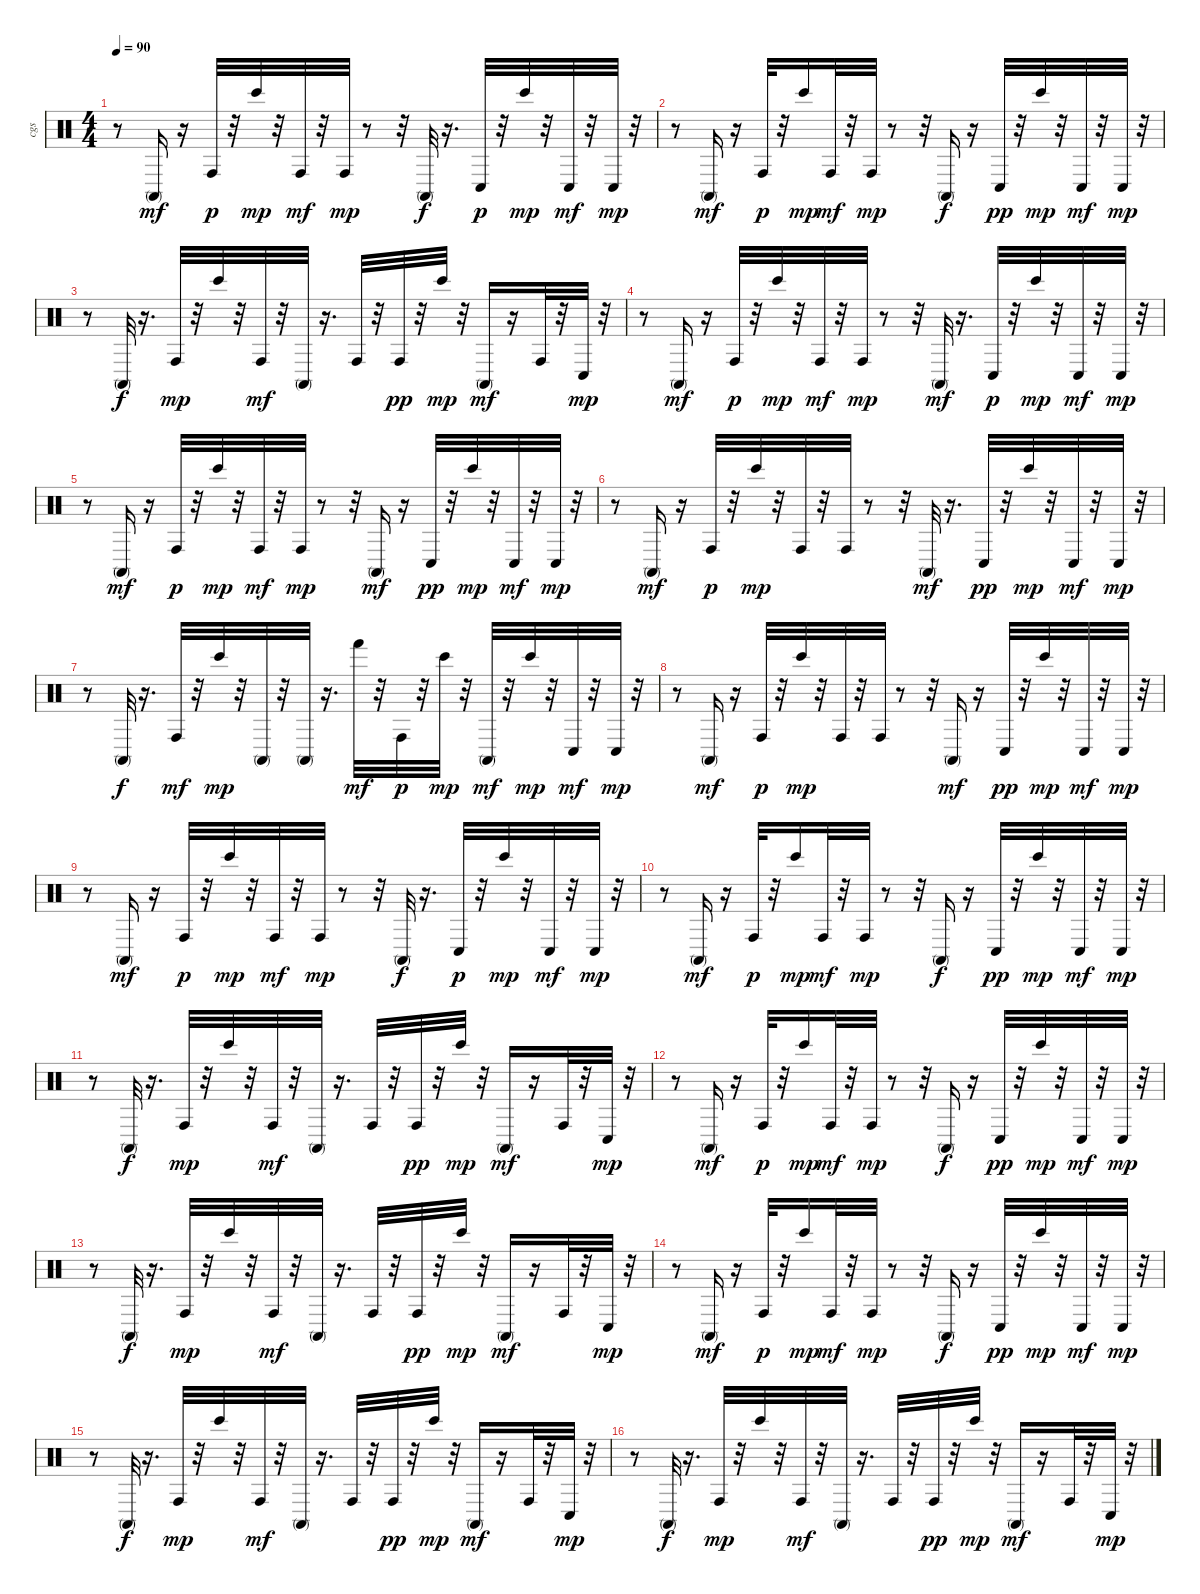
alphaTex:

\track ("cgs" "cgs") {instrument percussion}
\staff {score}
\articulation defaults
\ts (4 4)
\tempo 90
\clef neutral
\ks c
r.8{dy mp} "Conga high (mute)".16{dy mf} r.16 "Conga high (hit)".32{dy p} r.32 "Bongo High (hit)".32{dy mp} r.32 "Conga high (hit)".32{dy mf} r.32 "Conga high (hit)".32{dy mp} r.8 r.32 "Conga high (mute)".32{dy f} r.16{d} "Conga low (hit)".32{dy p} r.32 "Bongo High (hit)".32{dy mp} r.32 "Conga low (hit)".32{dy mf} r.32 "Conga low (hit)".32{dy mp} r.32 |
r.8 "Conga high (mute)".16{dy mf} r.16 "Conga high (hit)".32{dy p} r.32 "Bongo High (hit)".16{dy mp} "Conga high (hit)".32{dy mf} r.32 "Conga high (hit)".32{dy mp} r.8 r.32 "Conga high (mute)".16{dy f} r.16 "Conga low (hit)".32{dy pp} r.32 "Bongo High (hit)".32{dy mp} r.32 "Conga low (hit)".32{dy mf} r.32 "Conga low (hit)".32{dy mp} r.32 |
r.8 "Conga high (mute)".32{dy f} r.16{d} "Conga high (hit)".32{dy mp} r.32 "Bongo High (hit)".32 r.32 "Conga high (hit)".32{dy mf} r.32 "Conga high (mute)".32 r.16{d} "Conga high (hit)".32 r.32 "Conga high (hit)".32{dy pp} r.32 "Bongo High (hit)".32{dy mp} r.32 "Conga high (mute)".16{dy mf} r.16 "Conga high (hit)".32 r.32 "Conga low (hit)".32{dy mp} r.32 |
r.8 "Conga high (mute)".16{dy mf} r.16 "Conga high (hit)".32{dy p} r.32 "Bongo High (hit)".32{dy mp} r.32 "Conga high (hit)".32{dy mf} r.32 "Conga high (hit)".32{dy mp} r.8 r.32 "Conga high (mute)".32{dy mf} r.16{d} "Conga low (hit)".32{dy p} r.32 "Bongo High (hit)".32{dy mp} r.32 "Conga low (hit)".32{dy mf} r.32 "Conga low (hit)".32{dy mp} r.32 |
r.8 "Conga high (mute)".16{dy mf} r.16 "Conga high (hit)".32{dy p} r.32 "Bongo High (hit)".32{dy mp} r.32 "Conga high (hit)".32{dy mf} r.32 "Conga high (hit)".32{dy mp} r.8 r.32 "Conga high (mute)".16{dy mf} r.16 "Conga low (hit)".32{dy pp} r.32 "Bongo High (hit)".32{dy mp} r.32 "Conga low (hit)".32{dy mf} r.32 "Conga low (hit)".32{dy mp} r.32 |
r.8 "Conga high (mute)".16{dy mf} r.16 "Conga high (hit)".32{dy p} r.32 "Bongo High (hit)".32{dy mp} r.32 "Conga high (hit)".32 r.32 "Conga high (hit)".32 r.8 r.32 "Conga high (mute)".32{dy mf} r.16{d} "Conga low (hit)".32{dy pp} r.32 "Bongo High (hit)".32{dy mp} r.32 "Conga low (hit)".32{dy mf} r.32 "Conga low (hit)".32{dy mp} r.32 |
r.8 "Conga high (mute)".32{dy f} r.16{d} "Conga high (hit)".32{dy mf} r.32 "Bongo High (hit)".32{dy mp} r.32 "Conga high (mute)".32 r.32 "Conga high (mute)".32 r.16{d} "Hand (hit)".32{dy mf} r.32 "Conga high (hit)".32{dy p} r.32 "Bongo High (hit)".32{dy mp} r.32 "Conga high (mute)".32{dy mf} r.32 "Bongo High (hit)".32{dy mp} r.32 "Conga low (hit)".32{dy mf} r.32 "Conga low (hit)".32{dy mp} r.32 |
r.8 "Conga high (mute)".16{dy mf} r.16 "Conga high (hit)".32{dy p} r.32 "Bongo High (hit)".32{dy mp} r.32 "Conga high (hit)".32 r.32 "Conga high (hit)".32 r.8 r.32 "Conga high (mute)".16{dy mf} r.16 "Conga low (hit)".32{dy pp} r.32 "Bongo High (hit)".32{dy mp} r.32 "Conga low (hit)".32{dy mf} r.32 "Conga low (hit)".32{dy mp} r.32 |
r.8 "Conga high (mute)".16{dy mf} r.16 "Conga high (hit)".32{dy p} r.32 "Bongo High (hit)".32{dy mp} r.32 "Conga high (hit)".32{dy mf} r.32 "Conga high (hit)".32{dy mp} r.8 r.32 "Conga high (mute)".32{dy f} r.16{d} "Conga low (hit)".32{dy p} r.32 "Bongo High (hit)".32{dy mp} r.32 "Conga low (hit)".32{dy mf} r.32 "Conga low (hit)".32{dy mp} r.32 |
r.8 "Conga high (mute)".16{dy mf} r.16 "Conga high (hit)".32{dy p} r.32 "Bongo High (hit)".16{dy mp} "Conga high (hit)".32{dy mf} r.32 "Conga high (hit)".32{dy mp} r.8 r.32 "Conga high (mute)".16{dy f} r.16 "Conga low (hit)".32{dy pp} r.32 "Bongo High (hit)".32{dy mp} r.32 "Conga low (hit)".32{dy mf} r.32 "Conga low (hit)".32{dy mp} r.32 |
r.8 "Conga high (mute)".32{dy f} r.16{d} "Conga high (hit)".32{dy mp} r.32 "Bongo High (hit)".32 r.32 "Conga high (hit)".32{dy mf} r.32 "Conga high (mute)".32 r.16{d} "Conga high (hit)".32 r.32 "Conga high (hit)".32{dy pp} r.32 "Bongo High (hit)".32{dy mp} r.32 "Conga high (mute)".16{dy mf} r.16 "Conga high (hit)".32 r.32 "Conga low (hit)".32{dy mp} r.32 |
r.8 "Conga high (mute)".16{dy mf} r.16 "Conga high (hit)".32{dy p} r.32 "Bongo High (hit)".16{dy mp} "Conga high (hit)".32{dy mf} r.32 "Conga high (hit)".32{dy mp} r.8 r.32 "Conga high (mute)".16{dy f} r.16 "Conga low (hit)".32{dy pp} r.32 "Bongo High (hit)".32{dy mp} r.32 "Conga low (hit)".32{dy mf} r.32 "Conga low (hit)".32{dy mp} r.32 |
r.8 "Conga high (mute)".32{dy f} r.16{d} "Conga high (hit)".32{dy mp} r.32 "Bongo High (hit)".32 r.32 "Conga high (hit)".32{dy mf} r.32 "Conga high (mute)".32 r.16{d} "Conga high (hit)".32 r.32 "Conga high (hit)".32{dy pp} r.32 "Bongo High (hit)".32{dy mp} r.32 "Conga high (mute)".16{dy mf} r.16 "Conga high (hit)".32 r.32 "Conga low (hit)".32{dy mp} r.32 |
r.8 "Conga high (mute)".16{dy mf} r.16 "Conga high (hit)".32{dy p} r.32 "Bongo High (hit)".16{dy mp} "Conga high (hit)".32{dy mf} r.32 "Conga high (hit)".32{dy mp} r.8 r.32 "Conga high (mute)".16{dy f} r.16 "Conga low (hit)".32{dy pp} r.32 "Bongo High (hit)".32{dy mp} r.32 "Conga low (hit)".32{dy mf} r.32 "Conga low (hit)".32{dy mp} r.32 |
r.8 "Conga high (mute)".32{dy f} r.16{d} "Conga high (hit)".32{dy mp} r.32 "Bongo High (hit)".32 r.32 "Conga high (hit)".32{dy mf} r.32 "Conga high (mute)".32 r.16{d} "Conga high (hit)".32 r.32 "Conga high (hit)".32{dy pp} r.32 "Bongo High (hit)".32{dy mp} r.32 "Conga high (mute)".16{dy mf} r.16 "Conga high (hit)".32 r.32 "Conga low (hit)".32{dy mp} r.32 |
r.8 "Conga high (mute)".32{dy f} r.16{d} "Conga high (hit)".32{dy mp} r.32 "Bongo High (hit)".32 r.32 "Conga high (hit)".32{dy mf} r.32 "Conga high (mute)".32 r.16{d} "Conga high (hit)".32 r.32 "Conga high (hit)".32{dy pp} r.32 "Bongo High (hit)".32{dy mp} r.32 "Conga high (mute)".16{dy mf} r.16 "Conga high (hit)".32 r.32 "Conga low (hit)".32{dy mp} r.32
